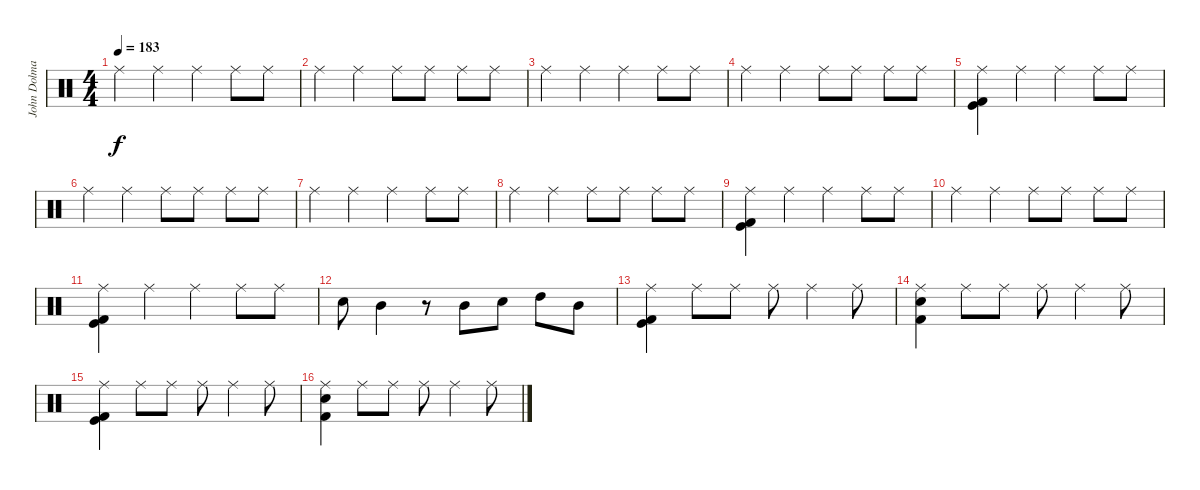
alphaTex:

\track ("John Dolmayan" "John Dolma") {instrument percussion}
\staff {score}
\articulation defaults
\ts (4 4)
\tempo 183
\clef neutral
\ks c "Ride (middle)".4{dy f} "Ride (middle)".4 "Ride (middle)".4 "Ride (middle)".8 "Ride (middle)".8
|
"Ride (middle)".4 "Ride (middle)".4 "Ride (middle)".8 "Ride (middle)".8 "Ride (middle)".8 "Ride (middle)".8 |
"Ride (middle)".4 "Ride (middle)".4 "Ride (middle)".4 "Ride (middle)".8 "Ride (middle)".8 |
"Ride (middle)".4 "Ride (middle)".4 "Ride (middle)".8 "Ride (middle)".8 "Ride (middle)".8 "Ride (middle)".8 |
("Ride (middle)" "Kick (hit)" "Kick (hit) 2").4 "Ride (middle)".4 "Ride (middle)".4 "Ride (middle)".8 "Ride (middle)".8 |
"Ride (middle)".4 "Ride (middle)".4 "Ride (middle)".8 "Ride (middle)".8 "Ride (middle)".8 "Ride (middle)".8 |
"Ride (middle)".4 "Ride (middle)".4 "Ride (middle)".4 "Ride (middle)".8 "Ride (middle)".8 |
"Ride (middle)".4 "Ride (middle)".4 "Ride (middle)".8 "Ride (middle)".8 "Ride (middle)".8 "Ride (middle)".8 |
("Ride (middle)" "Kick (hit) 2" "Kick (hit)").4 "Ride (middle)".4 "Ride (middle)".4 "Ride (middle)".8 "Ride (middle)".8 |
"Ride (middle)".4 "Ride (middle)".4 "Ride (middle)".8 "Ride (middle)".8 "Ride (middle)".8 "Ride (middle)".8 |
("Ride (middle)" "Kick (hit) 2" "Kick (hit)").4 "Ride (middle)".4 "Ride (middle)".4 "Ride (middle)".8 "Ride (middle)".8 |
"Electric Snare (hit)".8 "Mid Tom (hit)".4 r.8 "Mid Tom (hit)".8 "Electric Snare (hit)".8 "High Tom (hit)".8 "Mid Tom (hit)".8 |
("Ride (middle)" "Kick (hit)" "Kick (hit) 2").4 "Ride (middle)".8 "Ride (middle)".8 "Ride (middle)".8 "Ride (middle)".4 "Ride (middle)".8 |
("Ride (middle)" "Electric Snare (hit)" "Kick (hit) 2").4 "Ride (middle)".8 "Ride (middle)".8 "Ride (middle)".8 "Ride (middle)".4 "Ride (middle)".8 |
("Ride (middle)" "Kick (hit)" "Kick (hit) 2").4 "Ride (middle)".8 "Ride (middle)".8 "Ride (middle)".8 "Ride (middle)".4 "Ride (middle)".8 |
("Ride (middle)" "Electric Snare (hit)" "Kick (hit) 2").4 "Ride (middle)".8 "Ride (middle)".8 "Ride (middle)".8 "Ride (middle)".4 "Ride (middle)".8
